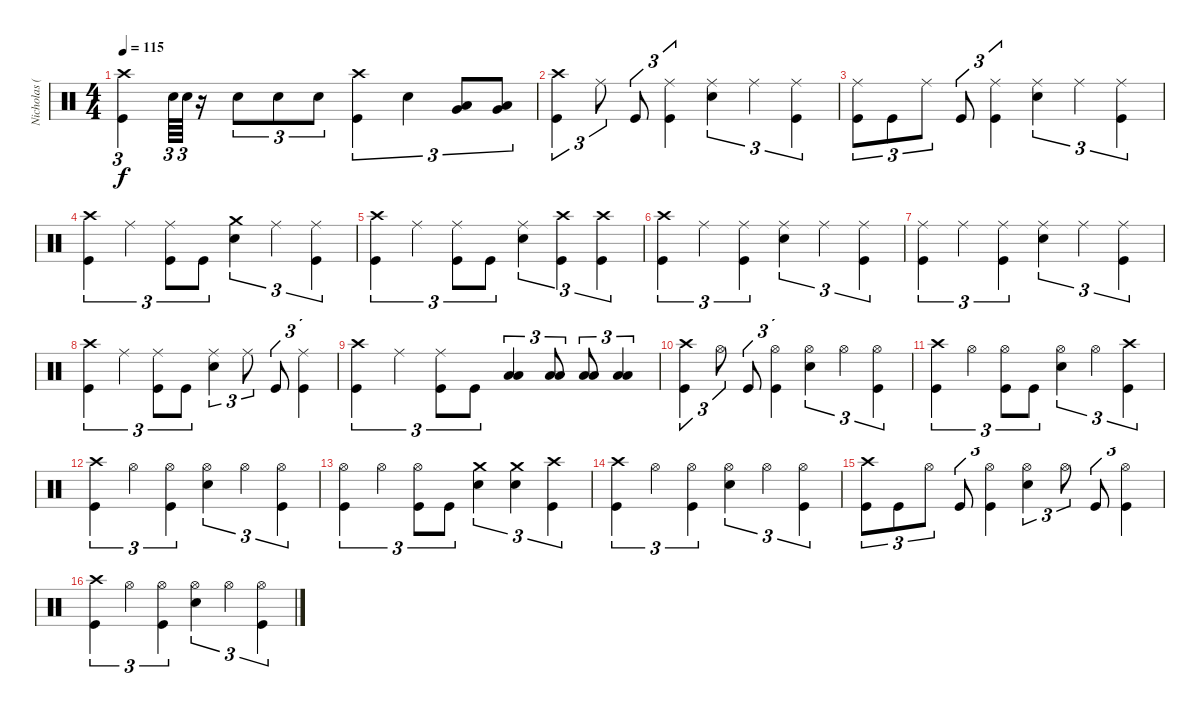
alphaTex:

\track ("Nicholas (Drums)" "Nicholas (") {instrument percussion}
\staff {score}
\articulation defaults
\ts (4 4)
\tempo 115
\clef neutral
\ks c
("Crash high (hit)" "Kick (hit)").4{tu (3 2) dy f} "Electric Snare (hit)".64{tu (3 2)} "Electric Snare (hit)".64{tu (3 2)} r.16 "Electric Snare (hit)".8{tu (3 2)} "Electric Snare (hit)".8{tu (3 2)} "Electric Snare (hit)".8{tu (3 2)} ("Crash high (hit)" "Kick (hit)").4{tu (3 2)} "Electric Snare (hit)".4{tu (3 2)} ("Low Tom (hit)" "Very Low Tom (hit)").8{tu (3 2) bu 60} ("Low Tom (hit)" "Very Low Tom (hit)").8{tu (3 2) bu 60} |
("Crash high (hit)" "Kick (hit)").4{tu (3 2)} "Ride (middle)".8{tu (3 2)} "Kick (hit)".8{tu (3 2)} ("Ride (middle)" "Kick (hit)").4{tu (3 2)} ("Ride (middle)" "Electric Snare (hit)").4{tu (3 2)} "Ride (middle)".4{tu (3 2)} ("Ride (middle)" "Kick (hit)").4{tu (3 2)} |
("Ride (middle)" "Kick (hit)").8{tu (3 2)} "Kick (hit)".8{tu (3 2)} "Ride (middle)".8{tu (3 2)} "Kick (hit)".8{tu (3 2)} ("Ride (middle)" "Kick (hit)").4{tu (3 2)} ("Ride (middle)" "Electric Snare (hit)").4{tu (3 2)} "Ride (middle)".4{tu (3 2)} ("Ride (middle)" "Kick (hit)").4{tu (3 2)} |
("Crash high (hit)" "Kick (hit)").4{tu (3 2)} "Ride (middle)".4{tu (3 2)} ("Ride (middle)" "Kick (hit)").8{tu (3 2)} "Kick (hit)".8{tu (3 2)} ("Crash medium (hit)" "Electric Snare (hit)").4{tu (3 2)} "Ride (middle)".4{tu (3 2)} ("Ride (middle)" "Kick (hit)").4{tu (3 2)} |
("Crash high (hit)" "Kick (hit)").4{tu (3 2)} "Ride (middle)".4{tu (3 2)} ("Ride (middle)" "Kick (hit)").8{tu (3 2)} "Kick (hit)".8{tu (3 2)} ("Ride (middle)" "Electric Snare (hit)").4{tu (3 2)} ("Crash high (hit)" "Kick (hit)").4{tu (3 2)} ("Crash high (hit)" "Kick (hit)").4{tu (3 2)} |
("Crash high (hit)" "Kick (hit)").4{tu (3 2)} "Ride (middle)".4{tu (3 2)} ("Ride (middle)" "Kick (hit)").4{tu (3 2)} ("Ride (middle)" "Electric Snare (hit)").4{tu (3 2)} "Ride (middle)".4{tu (3 2)} ("Ride (middle)" "Kick (hit)").4{tu (3 2)} |
("Ride (middle)" "Kick (hit)").4{tu (3 2)} "Ride (middle)".4{tu (3 2)} ("Ride (middle)" "Kick (hit)").4{tu (3 2)} ("Ride (middle)" "Electric Snare (hit)").4{tu (3 2)} "Ride (middle)".4{tu (3 2)} ("Ride (middle)" "Kick (hit)").4{tu (3 2)} |
("Crash high (hit)" "Kick (hit)").4{tu (3 2)} "Ride (middle)".4{tu (3 2)} ("Ride (middle)" "Kick (hit)").8{tu (3 2)} "Kick (hit)".8{tu (3 2)} ("Ride (middle)" "Electric Snare (hit)").4{tu (3 2)} "Ride (middle)".8{tu (3 2)} "Kick (hit)".8{tu (3 2)} ("Ride (middle)" "Kick (hit)").4{tu (3 2)} |
("Crash high (hit)" "Kick (hit)").4{tu (3 2)} "Ride (middle)".4{tu (3 2)} ("Ride (middle)" "Kick (hit)").8{tu (3 2)} "Kick (hit)".8{tu (3 2)} ("Low Tom (hit)" "Low Floor Tom (hit)").4{tu (3 2) bd 60} ("Low Tom (hit)" "Low Floor Tom (hit)").8{tu (3 2) bd 60} ("Low Tom (hit)" "Low Floor Tom (hit)").8{tu (3 2) bd 60} ("Low Tom (hit)" "Low Floor Tom (hit)").4{tu (3 2) bd 60} |
("Crash high (hit)" "Kick (hit)").4{tu (3 2)} "Hi-Hat (open)".8{tu (3 2)} "Kick (hit)".8{tu (3 2)} ("Hi-Hat (open)" "Kick (hit)").4{tu (3 2)} ("Hi-Hat (open)" "Electric Snare (hit)").4{tu (3 2)} "Hi-Hat (open)".4{tu (3 2)} ("Hi-Hat (open)" "Kick (hit)").4{tu (3 2)} |
("Crash high (hit)" "Kick (hit)").4{tu (3 2)} "Hi-Hat (open)".4{tu (3 2)} ("Hi-Hat (open)" "Kick (hit)").8{tu (3 2)} "Kick (hit)".8{tu (3 2)} ("Hi-Hat (open)" "Electric Snare (hit)").4{tu (3 2)} "Hi-Hat (open)".4{tu (3 2)} ("Crash high (hit)" "Kick (hit)").4{tu (3 2)} |
("Crash high (hit)" "Kick (hit)").4{tu (3 2)} "Hi-Hat (open)".4{tu (3 2)} ("Hi-Hat (open)" "Kick (hit)").4{tu (3 2)} ("Hi-Hat (open)" "Electric Snare (hit)").4{tu (3 2)} "Hi-Hat (open)".4{tu (3 2)} ("Hi-Hat (open)" "Kick (hit)").4{tu (3 2)} |
("Hi-Hat (open)" "Kick (hit)").4{tu (3 2)} "Hi-Hat (open)".4{tu (3 2)} ("Hi-Hat (open)" "Kick (hit)").8{tu (3 2)} "Kick (hit)".8{tu (3 2)} ("Crash medium (hit)" "Electric Snare (hit)").4{tu (3 2)} ("Crash medium (hit)" "Electric Snare (hit)").4{tu (3 2)} ("Crash high (hit)" "Kick (hit)").4{tu (3 2)} |
("Crash high (hit)" "Kick (hit)").4{tu (3 2)} "Hi-Hat (open)".4{tu (3 2)} ("Hi-Hat (open)" "Kick (hit)").4{tu (3 2)} ("Hi-Hat (open)" "Electric Snare (hit)").4{tu (3 2)} "Hi-Hat (open)".4{tu (3 2)} ("Hi-Hat (open)" "Kick (hit)").4{tu (3 2)} |
("Crash high (hit)" "Kick (hit)").8{tu (3 2)} "Kick (hit)".8{tu (3 2)} "Hi-Hat (open)".8{tu (3 2)} "Kick (hit)".8{tu (3 2)} ("Hi-Hat (open)" "Kick (hit)").4{tu (3 2)} ("Hi-Hat (open)" "Electric Snare (hit)").4{tu (3 2)} "Hi-Hat (open)".8{tu (3 2)} "Kick (hit)".8{tu (3 2)} ("Hi-Hat (open)" "Kick (hit)").4{tu (3 2)} |
("Crash high (hit)" "Kick (hit)").4{tu (3 2)} "Hi-Hat (open)".4{tu (3 2)} ("Hi-Hat (open)" "Kick (hit)").4{tu (3 2)} ("Hi-Hat (open)" "Electric Snare (hit)").4{tu (3 2)} "Hi-Hat (open)".4{tu (3 2)} ("Hi-Hat (open)" "Kick (hit)").4{tu (3 2)}
